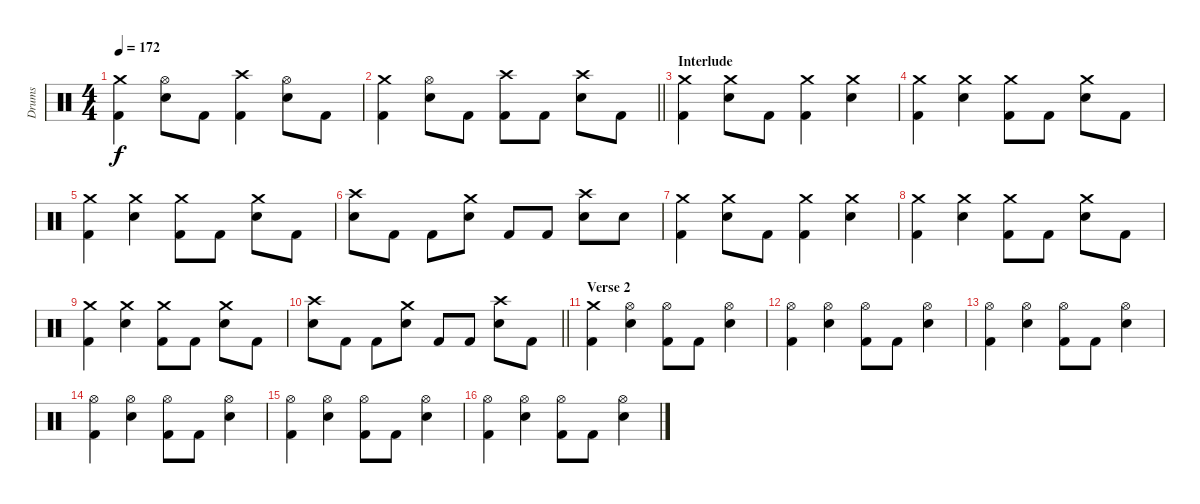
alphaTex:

\track ("Drums" "Drums") {instrument percussion}
\staff {score}
\articulation defaults
\ts (4 4)
\tempo 172
\clef neutral
\ks c
("Crash medium (hit)" "Kick (hit) 2").4{dy f} ("Hi-Hat (open)" "Electric Snare (hit)").8 "Kick (hit) 2".8 ("Crash high (hit)" "Kick (hit) 2").4 ("Hi-Hat (open)" "Electric Snare (hit)").8 "Kick (hit) 2".8 |
\barLineRight lightlight
("Crash medium (hit)" "Kick (hit) 2").4 ("Hi-Hat (open)" "Electric Snare (hit)").8 "Kick (hit) 2".8 ("Crash high (hit)" "Kick (hit) 2").8 "Kick (hit) 2".8 ("Crash high (hit)" "Electric Snare (hit)").8 "Kick (hit) 2".8 |
\section ("" "Interlude")
("Crash medium (hit)" "Kick (hit) 2").4 ("Crash medium (hit)" "Electric Snare (hit)").8 "Kick (hit) 2".8 ("Crash medium (hit)" "Kick (hit) 2").4 ("Crash medium (hit)" "Electric Snare (hit)").4 |
("Crash medium (hit)" "Kick (hit) 2").4 ("Crash medium (hit)" "Electric Snare (hit)").4 ("Crash medium (hit)" "Kick (hit) 2").8 "Kick (hit) 2".8 ("Crash medium (hit)" "Electric Snare (hit)").8 "Kick (hit) 2".8 |
("Crash medium (hit)" "Kick (hit) 2").4 ("Crash medium (hit)" "Electric Snare (hit)").4 ("Crash medium (hit)" "Kick (hit) 2").8 "Kick (hit) 2".8 ("Crash medium (hit)" "Electric Snare (hit)").8 "Kick (hit) 2".8 |
("Crash high (hit)" "Electric Snare (hit)").8 "Kick (hit) 2".8 "Kick (hit) 2".8 ("Crash medium (hit)" "Electric Snare (hit)").8 "Kick (hit) 2".8 "Kick (hit) 2".8 ("Crash high (hit)" "Electric Snare (hit)").8 "Electric Snare (hit)".8 |
("Crash medium (hit)" "Kick (hit) 2").4 ("Crash medium (hit)" "Electric Snare (hit)").8 "Kick (hit) 2".8 ("Crash medium (hit)" "Kick (hit) 2").4 ("Crash medium (hit)" "Electric Snare (hit)").4 |
("Crash medium (hit)" "Kick (hit) 2").4 ("Crash medium (hit)" "Electric Snare (hit)").4 ("Crash medium (hit)" "Kick (hit) 2").8 "Kick (hit) 2".8 ("Crash medium (hit)" "Electric Snare (hit)").8 "Kick (hit) 2".8 |
("Crash medium (hit)" "Kick (hit) 2").4 ("Crash medium (hit)" "Electric Snare (hit)").4 ("Crash medium (hit)" "Kick (hit) 2").8 "Kick (hit) 2".8 ("Crash medium (hit)" "Electric Snare (hit)").8 "Kick (hit) 2".8 |
\barLineRight lightlight
("Crash high (hit)" "Electric Snare (hit)").8 "Kick (hit) 2".8 "Kick (hit) 2".8 ("Crash medium (hit)" "Electric Snare (hit)").8 "Kick (hit) 2".8 "Kick (hit) 2".8 ("Crash high (hit)" "Electric Snare (hit)").8 "Kick (hit) 2".8 |
\section ("" "Verse 2")
("Crash medium (hit)" "Kick (hit) 2").4 ("Hi-Hat (open)" "Electric Snare (hit)").4 ("Hi-Hat (open)" "Kick (hit) 2").8 "Kick (hit) 2".8 ("Hi-Hat (open)" "Electric Snare (hit)").4 |
("Hi-Hat (open)" "Kick (hit) 2").4 ("Hi-Hat (open)" "Electric Snare (hit)").4 ("Hi-Hat (open)" "Kick (hit) 2").8 "Kick (hit) 2".8 ("Hi-Hat (open)" "Electric Snare (hit)").4 |
("Hi-Hat (open)" "Kick (hit) 2").4 ("Hi-Hat (open)" "Electric Snare (hit)").4 ("Hi-Hat (open)" "Kick (hit) 2").8 "Kick (hit) 2".8 ("Hi-Hat (open)" "Electric Snare (hit)").4 |
("Hi-Hat (open)" "Kick (hit) 2").4 ("Hi-Hat (open)" "Electric Snare (hit)").4 ("Hi-Hat (open)" "Kick (hit) 2").8 "Kick (hit) 2".8 ("Hi-Hat (open)" "Electric Snare (hit)").4 |
("Hi-Hat (open)" "Kick (hit) 2").4 ("Hi-Hat (open)" "Electric Snare (hit)").4 ("Hi-Hat (open)" "Kick (hit) 2").8 "Kick (hit) 2".8 ("Hi-Hat (open)" "Electric Snare (hit)").4 |
("Hi-Hat (open)" "Kick (hit) 2").4 ("Hi-Hat (open)" "Electric Snare (hit)").4 ("Hi-Hat (open)" "Kick (hit) 2").8 "Kick (hit) 2".8 ("Hi-Hat (open)" "Electric Snare (hit)").4
